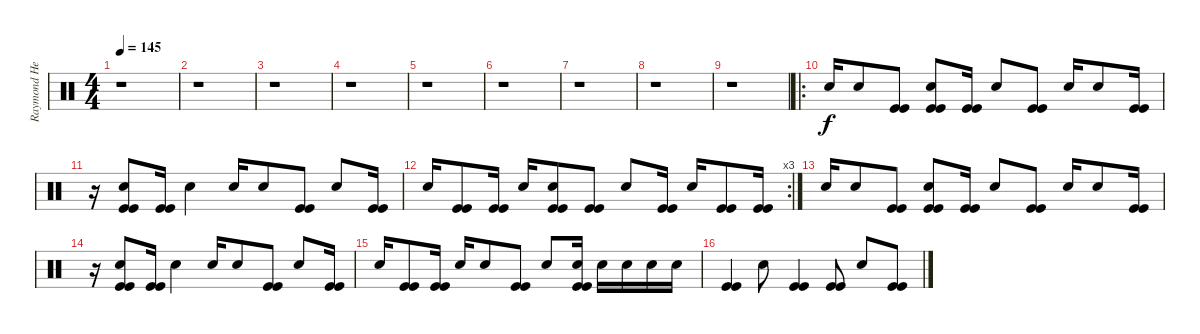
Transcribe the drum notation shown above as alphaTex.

\track ("Raymond Herrera" "Raymond He") {instrument percussion}
\staff {score}
\articulation defaults
\ts (4 4)
\tempo 145
\clef neutral
\ks c
r.1{dy f} |
r.1 |
r.1 |
r.1 |
r.1 |
r.1 |
r.1 |
r.1 |
r.1 |
\ro "Electric Snare (hit)".16 "Snare (hit) 2".8
("Kick (hit)" "Kick (hit)").8 ("Electric Snare (hit)" "Kick (hit)" "Kick (hit)").8 ("Kick (hit)" "Kick (hit)").16 "Electric Snare (hit)".8 ("Kick (hit)" "Kick (hit)").8 "Electric Snare (hit)".16 "Snare (hit) 2".8 ("Kick (hit)" "Kick (hit)").16 |
r.16 ("Electric Snare (hit)" "Kick (hit)" "Kick (hit)").8 ("Kick (hit)" "Kick (hit)").16 "Electric Snare (hit)".4 "Electric Snare (hit)".16 "Snare (hit) 2".8 ("Kick (hit)" "Kick (hit)").8 "Electric Snare (hit)".8 ("Kick (hit)" "Kick (hit)").16 |
\rc 3 "Electric Snare (hit)".16
("Kick (hit)" "Kick (hit)").8 ("Kick (hit)" "Kick (hit)").16 "Electric Snare (hit)".16 ("Snare (hit) 2" "Kick (hit)" "Kick (hit)").8 ("Kick (hit)" "Kick (hit)").8 "Electric Snare (hit)".8 ("Kick (hit)" "Kick (hit)").16 "Electric Snare (hit)".16 ("Kick (hit)" "Kick (hit)").8 ("Kick (hit)" "Kick (hit)").16 |
"Electric Snare (hit)".16 "Snare (hit) 2".8 ("Kick (hit)" "Kick (hit)").8 ("Electric Snare (hit)" "Kick (hit)" "Kick (hit)").8 ("Kick (hit)" "Kick (hit)").16 "Electric Snare (hit)".8 ("Kick (hit)" "Kick (hit)").8 "Electric Snare (hit)".16 "Snare (hit) 2".8 ("Kick (hit)" "Kick (hit)").16 |
r.16 ("Electric Snare (hit)" "Kick (hit)" "Kick (hit)").8 ("Kick (hit)" "Kick (hit)").16 "Electric Snare (hit)".4 "Electric Snare (hit)".16 "Snare (hit) 2".8 ("Kick (hit)" "Kick (hit)").8 "Electric Snare (hit)".8 ("Kick (hit)" "Kick (hit)").16 |
"Electric Snare (hit)".16 ("Kick (hit)" "Kick (hit)").8 ("Kick (hit)" "Kick (hit)").16 "Electric Snare (hit)".16 "Snare (hit) 2".8 ("Kick (hit)" "Kick (hit)").8 "Electric Snare (hit)".8 ("Electric Snare (hit)" "Kick (hit)" "Kick (hit)").16 "Electric Snare (hit)".16 "Electric Snare (hit)".16 "Electric Snare (hit)".16 "Electric Snare (hit)".16 |
("Kick (hit)" "Kick (hit)").4 "Electric Snare (hit)".8 ("Kick (hit)" "Kick (hit)").4 ("Kick (hit)" "Kick (hit)").8 "Electric Snare (hit)".8 ("Kick (hit)" "Kick (hit)").8
